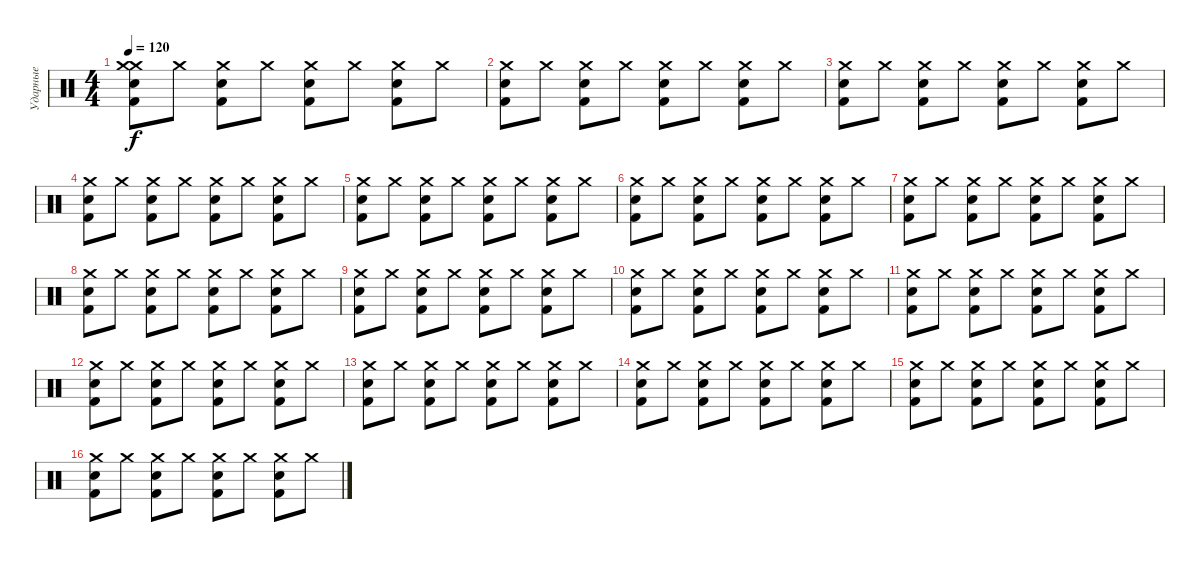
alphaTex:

\track ("Ударные" "Ударные") {instrument percussion}
\staff {score}
\articulation defaults
\ts (4 4)
\tempo 120
\clef neutral
\ks c
("Kick (hit) 2" "Electric Snare (hit)" "Crash medium (hit)" "Crash medium (hit)").8{dy f} "Crash medium (hit)".8 ("Kick (hit) 2" "Electric Snare (hit)" "Crash medium (hit)").8 "Crash medium (hit)".8 ("Kick (hit) 2" "Electric Snare (hit)" "Crash medium (hit)").8 "Crash medium (hit)".8 ("Kick (hit) 2" "Electric Snare (hit)" "Crash medium (hit)").8 "Crash medium (hit)".8 |
("Kick (hit) 2" "Electric Snare (hit)" "Crash medium (hit)").8 "Crash medium (hit)".8 ("Kick (hit) 2" "Electric Snare (hit)" "Crash medium (hit)").8 "Crash medium (hit)".8 ("Kick (hit) 2" "Electric Snare (hit)" "Crash medium (hit)").8 "Crash medium (hit)".8 ("Kick (hit) 2" "Electric Snare (hit)" "Crash medium (hit)").8 "Crash medium (hit)".8 |
("Kick (hit) 2" "Electric Snare (hit)" "Crash medium (hit)").8 "Crash medium (hit)".8 ("Kick (hit) 2" "Electric Snare (hit)" "Crash medium (hit)").8 "Crash medium (hit)".8 ("Kick (hit) 2" "Electric Snare (hit)" "Crash medium (hit)").8 "Crash medium (hit)".8 ("Kick (hit) 2" "Electric Snare (hit)" "Crash medium (hit)").8 "Crash medium (hit)".8 |
("Kick (hit) 2" "Electric Snare (hit)" "Crash medium (hit)").8 "Crash medium (hit)".8 ("Kick (hit) 2" "Electric Snare (hit)" "Crash medium (hit)").8 "Crash medium (hit)".8 ("Kick (hit) 2" "Electric Snare (hit)" "Crash medium (hit)").8 "Crash medium (hit)".8 ("Kick (hit) 2" "Electric Snare (hit)" "Crash medium (hit)").8 "Crash medium (hit)".8 |
("Kick (hit) 2" "Electric Snare (hit)" "Crash medium (hit)").8 "Crash medium (hit)".8 ("Kick (hit) 2" "Electric Snare (hit)" "Crash medium (hit)").8 "Crash medium (hit)".8 ("Kick (hit) 2" "Electric Snare (hit)" "Crash medium (hit)").8 "Crash medium (hit)".8 ("Kick (hit) 2" "Electric Snare (hit)" "Crash medium (hit)").8 "Crash medium (hit)".8 |
("Kick (hit) 2" "Electric Snare (hit)" "Crash medium (hit)").8 "Crash medium (hit)".8 ("Kick (hit) 2" "Electric Snare (hit)" "Crash medium (hit)").8 "Crash medium (hit)".8 ("Kick (hit) 2" "Electric Snare (hit)" "Crash medium (hit)").8 "Crash medium (hit)".8 ("Kick (hit) 2" "Electric Snare (hit)" "Crash medium (hit)").8 "Crash medium (hit)".8 |
("Kick (hit) 2" "Electric Snare (hit)" "Crash medium (hit)").8 "Crash medium (hit)".8 ("Kick (hit) 2" "Electric Snare (hit)" "Crash medium (hit)").8 "Crash medium (hit)".8 ("Kick (hit) 2" "Electric Snare (hit)" "Crash medium (hit)").8 "Crash medium (hit)".8 ("Kick (hit) 2" "Electric Snare (hit)" "Crash medium (hit)").8 "Crash medium (hit)".8 |
("Kick (hit) 2" "Electric Snare (hit)" "Crash medium (hit)").8 "Crash medium (hit)".8 ("Kick (hit) 2" "Electric Snare (hit)" "Crash medium (hit)").8 "Crash medium (hit)".8 ("Kick (hit) 2" "Electric Snare (hit)" "Crash medium (hit)").8 "Crash medium (hit)".8 ("Kick (hit) 2" "Electric Snare (hit)" "Crash medium (hit)").8 "Crash medium (hit)".8 |
("Kick (hit) 2" "Electric Snare (hit)" "Crash medium (hit)").8 "Crash medium (hit)".8 ("Kick (hit) 2" "Electric Snare (hit)" "Crash medium (hit)").8 "Crash medium (hit)".8 ("Kick (hit) 2" "Electric Snare (hit)" "Crash medium (hit)").8 "Crash medium (hit)".8 ("Kick (hit) 2" "Electric Snare (hit)" "Crash medium (hit)").8 "Crash medium (hit)".8 |
("Kick (hit) 2" "Electric Snare (hit)" "Crash medium (hit)").8 "Crash medium (hit)".8 ("Kick (hit) 2" "Electric Snare (hit)" "Crash medium (hit)").8 "Crash medium (hit)".8 ("Kick (hit) 2" "Electric Snare (hit)" "Crash medium (hit)").8 "Crash medium (hit)".8 ("Kick (hit) 2" "Electric Snare (hit)" "Crash medium (hit)").8 "Crash medium (hit)".8 |
("Kick (hit) 2" "Electric Snare (hit)" "Crash medium (hit)").8 "Crash medium (hit)".8 ("Kick (hit) 2" "Electric Snare (hit)" "Crash medium (hit)").8 "Crash medium (hit)".8 ("Kick (hit) 2" "Electric Snare (hit)" "Crash medium (hit)").8 "Crash medium (hit)".8 ("Kick (hit) 2" "Electric Snare (hit)" "Crash medium (hit)").8 "Crash medium (hit)".8 |
("Kick (hit) 2" "Electric Snare (hit)" "Crash medium (hit)").8 "Crash medium (hit)".8 ("Kick (hit) 2" "Electric Snare (hit)" "Crash medium (hit)").8 "Crash medium (hit)".8 ("Kick (hit) 2" "Electric Snare (hit)" "Crash medium (hit)").8 "Crash medium (hit)".8 ("Kick (hit) 2" "Electric Snare (hit)" "Crash medium (hit)").8 "Crash medium (hit)".8 |
("Kick (hit) 2" "Electric Snare (hit)" "Crash medium (hit)").8 "Crash medium (hit)".8 ("Kick (hit) 2" "Electric Snare (hit)" "Crash medium (hit)").8 "Crash medium (hit)".8 ("Kick (hit) 2" "Electric Snare (hit)" "Crash medium (hit)").8 "Crash medium (hit)".8 ("Kick (hit) 2" "Electric Snare (hit)" "Crash medium (hit)").8 "Crash medium (hit)".8 |
("Kick (hit) 2" "Electric Snare (hit)" "Crash medium (hit)").8 "Crash medium (hit)".8 ("Kick (hit) 2" "Electric Snare (hit)" "Crash medium (hit)").8 "Crash medium (hit)".8 ("Kick (hit) 2" "Electric Snare (hit)" "Crash medium (hit)").8 "Crash medium (hit)".8 ("Kick (hit) 2" "Electric Snare (hit)" "Crash medium (hit)").8 "Crash medium (hit)".8 |
("Kick (hit) 2" "Electric Snare (hit)" "Crash medium (hit)").8 "Crash medium (hit)".8 ("Kick (hit) 2" "Electric Snare (hit)" "Crash medium (hit)").8 "Crash medium (hit)".8 ("Kick (hit) 2" "Electric Snare (hit)" "Crash medium (hit)").8 "Crash medium (hit)".8 ("Kick (hit) 2" "Electric Snare (hit)" "Crash medium (hit)").8 "Crash medium (hit)".8 |
("Kick (hit) 2" "Electric Snare (hit)" "Crash medium (hit)").8 "Crash medium (hit)".8 ("Kick (hit) 2" "Electric Snare (hit)" "Crash medium (hit)").8 "Crash medium (hit)".8 ("Kick (hit) 2" "Electric Snare (hit)" "Crash medium (hit)").8 "Crash medium (hit)".8 ("Kick (hit) 2" "Electric Snare (hit)" "Crash medium (hit)").8 "Crash medium (hit)".8
